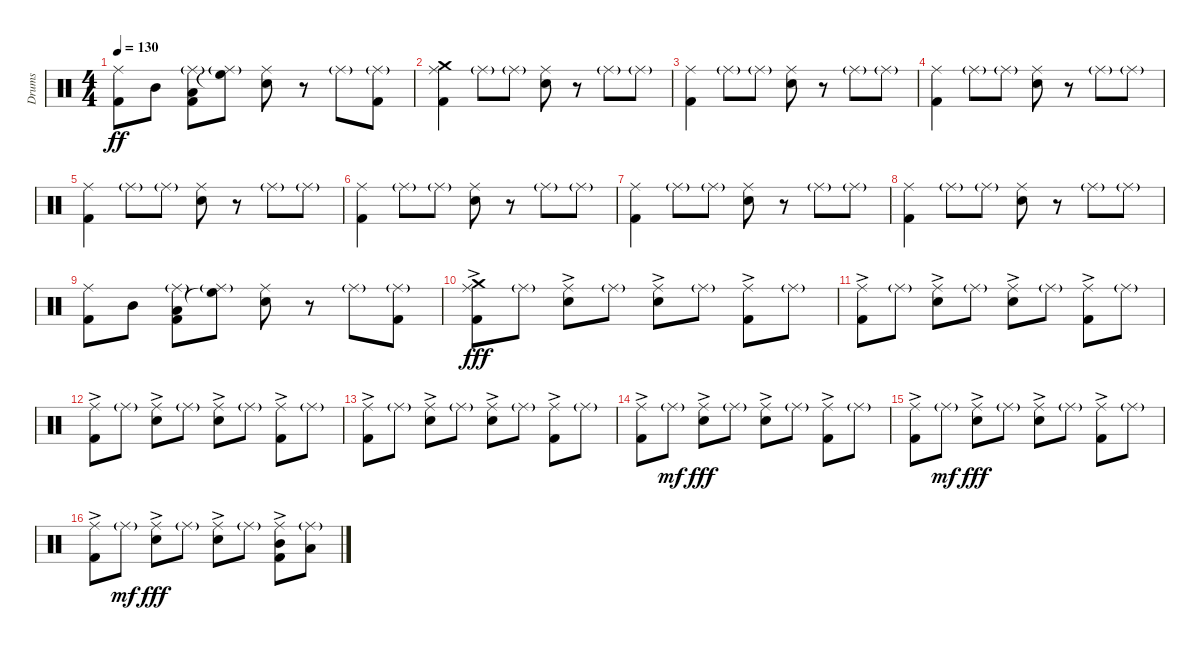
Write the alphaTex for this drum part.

\track ("Drums" "Drums") {instrument percussion}
\staff {score}
\articulation defaults
\ts (4 4)
\tempo 130
\clef neutral
\ks c
("Ride (middle)" "Kick (hit) 2").8{dy ff} "Mid Tom (hit)".8 ("Ride (middle)"{g} "Low Tom (hit)" "Kick (hit) 2").8 ("Ride (middle)"{g} "High Floor Tom (hit)"{t}).8 ("Ride (middle)" "Electric Snare (hit)").8 r.8 "Ride (middle)"{g}.8 ("Ride (middle)"{g} "Kick (hit) 2").8 |
("Crash medium (hit)" "Ride (middle)" "Kick (hit) 2").4 "Ride (middle)"{g}.8 "Ride (middle)"{g}.8 ("Ride (middle)" "Electric Snare (hit)").8 r.8 "Ride (middle)"{g}.8 "Ride (middle)"{g}.8 |
("Ride (middle)" "Kick (hit) 2").4 "Ride (middle)"{g}.8 "Ride (middle)"{g}.8 ("Ride (middle)" "Electric Snare (hit)").8 r.8 "Ride (middle)"{g}.8 "Ride (middle)"{g}.8 |
("Ride (middle)" "Kick (hit) 2").4 "Ride (middle)"{g}.8 "Ride (middle)"{g}.8 ("Ride (middle)" "Electric Snare (hit)").8 r.8 "Ride (middle)"{g}.8 "Ride (middle)"{g}.8 |
("Ride (middle)" "Kick (hit) 2").4 "Ride (middle)"{g}.8 "Ride (middle)"{g}.8 ("Ride (middle)" "Electric Snare (hit)").8 r.8 "Ride (middle)"{g}.8 "Ride (middle)"{g}.8 |
("Ride (middle)" "Kick (hit) 2").4 "Ride (middle)"{g}.8 "Ride (middle)"{g}.8 ("Ride (middle)" "Electric Snare (hit)").8 r.8 "Ride (middle)"{g}.8 "Ride (middle)"{g}.8 |
("Ride (middle)" "Kick (hit) 2").4 "Ride (middle)"{g}.8 "Ride (middle)"{g}.8 ("Ride (middle)" "Electric Snare (hit)").8 r.8 "Ride (middle)"{g}.8 "Ride (middle)"{g}.8 |
("Ride (middle)" "Kick (hit) 2").4 "Ride (middle)"{g}.8 "Ride (middle)"{g}.8 ("Ride (middle)" "Electric Snare (hit)").8 r.8 "Ride (middle)"{g}.8 "Ride (middle)"{g}.8 |
("Ride (middle)" "Kick (hit) 2").8 "Mid Tom (hit)".8 ("Ride (middle)"{g} "Low Tom (hit)" "Kick (hit) 2").8 ("Ride (middle)"{g} "High Floor Tom (hit)"{t}).8 ("Ride (middle)" "Electric Snare (hit)").8 r.8 "Ride (middle)"{g}.8 ("Ride (middle)"{g} "Kick (hit) 2").8 |
("Crash medium (hit)" "Ride (middle)"{ac} "Kick (hit) 2").8{dy fff} "Ride (middle)"{g}.8 ("Ride (middle)"{ac} "Electric Snare (hit)").8 "Ride (middle)"{g}.8 ("Ride (middle)"{ac} "Electric Snare (hit)").8 "Ride (middle)"{g}.8 ("Ride (middle)"{ac} "Kick (hit) 2").8 "Ride (middle)"{g}.8 |
("Ride (middle)"{ac} "Kick (hit) 2").8 "Ride (middle)"{g}.8 ("Ride (middle)"{ac} "Electric Snare (hit)").8 "Ride (middle)"{g}.8 ("Ride (middle)"{ac} "Electric Snare (hit)").8 "Ride (middle)"{g}.8 ("Ride (middle)"{ac} "Kick (hit) 2").8 "Ride (middle)"{g}.8 |
("Ride (middle)"{ac} "Kick (hit) 2").8 "Ride (middle)"{g}.8 ("Ride (middle)"{ac} "Electric Snare (hit)").8 "Ride (middle)"{g}.8 ("Ride (middle)"{ac} "Electric Snare (hit)").8 "Ride (middle)"{g}.8 ("Ride (middle)"{ac} "Kick (hit) 2").8 "Ride (middle)"{g}.8 |
("Ride (middle)"{ac} "Kick (hit) 2").8 "Ride (middle)"{g}.8 ("Ride (middle)"{ac} "Electric Snare (hit)").8 "Ride (middle)"{g}.8 ("Ride (middle)"{ac} "Electric Snare (hit)").8 "Ride (middle)"{g}.8 ("Ride (middle)"{ac} "Kick (hit) 2").8 "Ride (middle)"{g}.8 |
("Ride (middle)"{ac} "Kick (hit) 2").8 "Ride (middle)"{g}.8{dy mf} ("Ride (middle)"{ac} "Electric Snare (hit)").8{dy fff} "Ride (middle)"{g}.8 ("Ride (middle)"{ac} "Electric Snare (hit)").8 "Ride (middle)"{g}.8 ("Ride (middle)"{ac} "Kick (hit) 2").8 "Ride (middle)"{g}.8 |
("Ride (middle)"{ac} "Kick (hit) 2").8 "Ride (middle)"{g}.8{dy mf} ("Ride (middle)"{ac} "Electric Snare (hit)").8{dy fff} "Ride (middle)"{g}.8 ("Ride (middle)"{ac} "Electric Snare (hit)").8 "Ride (middle)"{g}.8 ("Ride (middle)"{ac} "Kick (hit) 2").8 "Ride (middle)"{g}.8 |
("Ride (middle)"{ac} "Kick (hit) 2").8 "Ride (middle)"{g}.8{dy mf} ("Ride (middle)"{ac} "Electric Snare (hit)").8{dy fff} "Ride (middle)"{g}.8 ("Ride (middle)"{ac} "Electric Snare (hit)").8 "Ride (middle)"{g}.8 ("Ride (middle)"{ac} "Mid Tom (hit)" "Kick (hit) 2").8 ("Ride (middle)"{g} "Low Tom (hit)").8
